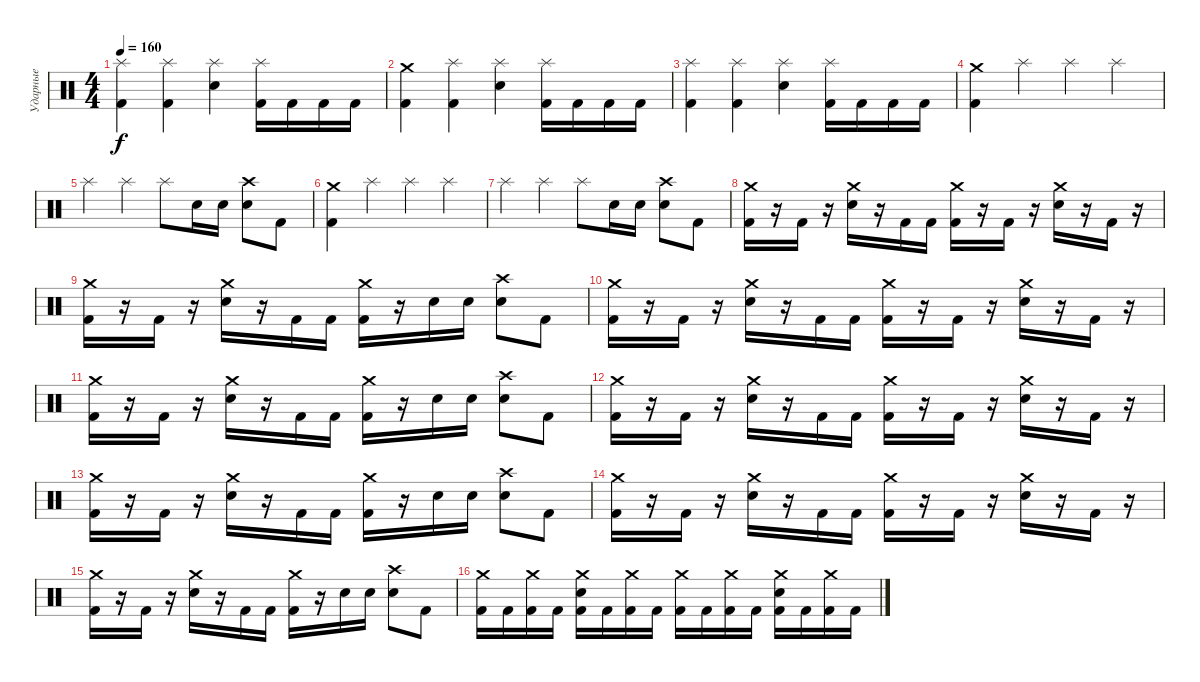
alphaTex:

\track ("Ударные" "Ударные") {instrument percussion}
\staff {score}
\articulation defaults
\ts (4 4)
\tempo 160
\clef neutral
\ks c
("Splash (hit)" "Kick (hit) 2").4{dy f} ("Splash (hit)" "Kick (hit) 2").4 ("Splash (hit)" "Electric Snare (hit)").4 ("Splash (hit)" "Kick (hit) 2").16 "Kick (hit) 2".16 "Kick (hit) 2".16 "Kick (hit) 2".16 |
("Crash medium (hit)" "Kick (hit) 2").4 ("Splash (hit)" "Kick (hit) 2").4 ("Splash (hit)" "Electric Snare (hit)").4 ("Splash (hit)" "Kick (hit) 2").16 "Kick (hit) 2".16 "Kick (hit) 2".16 "Kick (hit) 2".16 |
("Splash (hit)" "Kick (hit) 2").4 ("Splash (hit)" "Kick (hit) 2").4 ("Splash (hit)" "Electric Snare (hit)").4 ("Splash (hit)" "Kick (hit) 2").16 "Kick (hit) 2".16 "Kick (hit) 2".16 "Kick (hit) 2".16 |
("Crash medium (hit)" "Kick (hit) 2").4 "Splash (hit)".4 "Splash (hit)".4 "Splash (hit)".4 |
"Splash (hit)".4 "Splash (hit)".4 "Splash (hit)".8 "Electric Snare (hit)".16 "Electric Snare (hit)".16 ("Crash high (hit)" "Electric Snare (hit)").8 "Kick (hit) 2".8 |
("Crash medium (hit)" "Kick (hit) 2").4 "Splash (hit)".4 "Splash (hit)".4 "Splash (hit)".4 |
"Splash (hit)".4 "Splash (hit)".4 "Splash (hit)".8 "Electric Snare (hit)".16 "Electric Snare (hit)".16 ("Crash high (hit)" "Electric Snare (hit)").8 "Kick (hit) 2".8 |
("Crash medium (hit)" "Kick (hit) 2").16 r.16 "Kick (hit) 2".16 r.16 ("Crash medium (hit)" "Electric Snare (hit)").16 r.16 "Kick (hit) 2".16 "Kick (hit) 2".16 ("Crash medium (hit)" "Kick (hit) 2").16 r.16 "Kick (hit) 2".16 r.16 ("Crash medium (hit)" "Electric Snare (hit)").16 r.16 "Kick (hit) 2".16 r.16 |
("Crash medium (hit)" "Kick (hit) 2").16 r.16 "Kick (hit) 2".16 r.16 ("Crash medium (hit)" "Electric Snare (hit)").16 r.16 "Kick (hit) 2".16 "Kick (hit) 2".16 ("Crash medium (hit)" "Kick (hit) 2").16 r.16 "Electric Snare (hit)".16 "Electric Snare (hit)".16 ("Crash high (hit)" "Electric Snare (hit)").8 "Kick (hit) 2".8 |
("Crash medium (hit)" "Kick (hit) 2").16 r.16 "Kick (hit) 2".16 r.16 ("Crash medium (hit)" "Electric Snare (hit)").16 r.16 "Kick (hit) 2".16 "Kick (hit) 2".16 ("Crash medium (hit)" "Kick (hit) 2").16 r.16 "Kick (hit) 2".16 r.16 ("Crash medium (hit)" "Electric Snare (hit)").16 r.16 "Kick (hit) 2".16 r.16 |
("Crash medium (hit)" "Kick (hit) 2").16 r.16 "Kick (hit) 2".16 r.16 ("Crash medium (hit)" "Electric Snare (hit)").16 r.16 "Kick (hit) 2".16 "Kick (hit) 2".16 ("Crash medium (hit)" "Kick (hit) 2").16 r.16 "Electric Snare (hit)".16 "Electric Snare (hit)".16 ("Crash high (hit)" "Electric Snare (hit)").8 "Kick (hit) 2".8 |
("Crash medium (hit)" "Kick (hit) 2").16 r.16 "Kick (hit) 2".16 r.16 ("Crash medium (hit)" "Electric Snare (hit)").16 r.16 "Kick (hit) 2".16 "Kick (hit) 2".16 ("Crash medium (hit)" "Kick (hit) 2").16 r.16 "Kick (hit) 2".16 r.16 ("Crash medium (hit)" "Electric Snare (hit)").16 r.16 "Kick (hit) 2".16 r.16 |
("Crash medium (hit)" "Kick (hit) 2").16 r.16 "Kick (hit) 2".16 r.16 ("Crash medium (hit)" "Electric Snare (hit)").16 r.16 "Kick (hit) 2".16 "Kick (hit) 2".16 ("Crash medium (hit)" "Kick (hit) 2").16 r.16 "Electric Snare (hit)".16 "Electric Snare (hit)".16 ("Crash high (hit)" "Electric Snare (hit)").8 "Kick (hit) 2".8 |
("Crash medium (hit)" "Kick (hit) 2").16 r.16 "Kick (hit) 2".16 r.16 ("Crash medium (hit)" "Electric Snare (hit)").16 r.16 "Kick (hit) 2".16 "Kick (hit) 2".16 ("Crash medium (hit)" "Kick (hit) 2").16 r.16 "Kick (hit) 2".16 r.16 ("Crash medium (hit)" "Electric Snare (hit)").16 r.16 "Kick (hit) 2".16 r.16 |
("Crash medium (hit)" "Kick (hit) 2").16 r.16 "Kick (hit) 2".16 r.16 ("Crash medium (hit)" "Electric Snare (hit)").16 r.16 "Kick (hit) 2".16 "Kick (hit) 2".16 ("Crash medium (hit)" "Kick (hit) 2").16 r.16 "Electric Snare (hit)".16 "Electric Snare (hit)".16 ("Crash high (hit)" "Electric Snare (hit)").8 "Kick (hit) 2".8 |
("Crash medium (hit)" "Kick (hit) 2").16 "Kick (hit) 2".16 ("Crash medium (hit)" "Kick (hit) 2").16 "Kick (hit) 2".16 ("Crash medium (hit)" "Electric Snare (hit)" "Kick (hit) 2").16 "Kick (hit) 2".16 ("Crash medium (hit)" "Kick (hit) 2").16 "Kick (hit) 2".16 ("Crash medium (hit)" "Kick (hit) 2").16 "Kick (hit) 2".16 ("Crash medium (hit)" "Kick (hit) 2").16 "Kick (hit) 2".16 ("Crash medium (hit)" "Electric Snare (hit)" "Kick (hit) 2").16 "Kick (hit) 2".16 ("Crash medium (hit)" "Kick (hit) 2").16 "Kick (hit) 2".16
